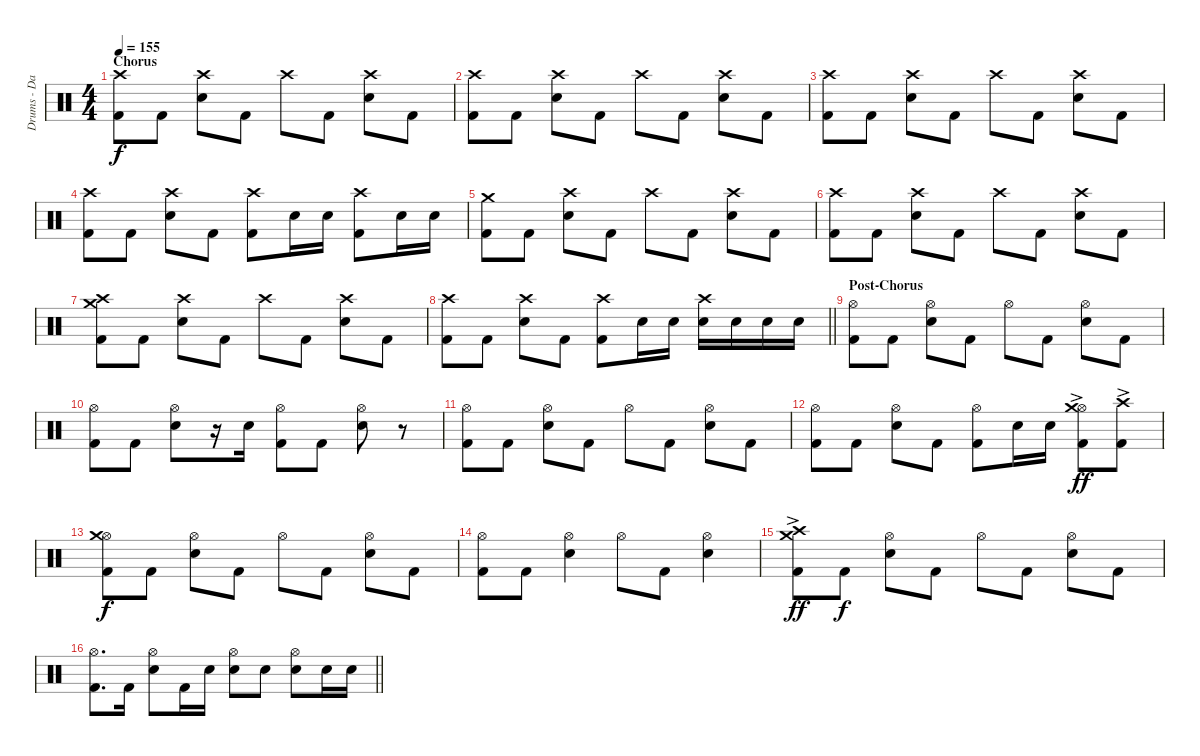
\track ("Drums - Daniel Adair" "Drums - Da") {instrument percussion bank 1}
\staff {score}
\articulation defaults
\ts (4 4)
\section ("" "Chorus")
\tempo 155
\clef neutral
\ks c
("Crash high (hit)" "Kick (hit) 2").8{dy f} "Kick (hit) 2".8 ("Crash high (hit)" "Snare (hit) 2").8 "Kick (hit) 2".8 "Crash high (hit)".8 "Kick (hit) 2".8 ("Crash high (hit)" "Snare (hit) 2").8 "Kick (hit) 2".8 |
("Crash high (hit)" "Kick (hit) 2").8 "Kick (hit) 2".8 ("Crash high (hit)" "Snare (hit) 2").8 "Kick (hit) 2".8 "Crash high (hit)".8 "Kick (hit) 2".8 ("Crash high (hit)" "Snare (hit) 2").8 "Kick (hit) 2".8 |
("Crash high (hit)" "Kick (hit) 2").8 "Kick (hit) 2".8 ("Crash high (hit)" "Snare (hit) 2").8 "Kick (hit) 2".8 "Crash high (hit)".8 "Kick (hit) 2".8 ("Crash high (hit)" "Snare (hit) 2").8 "Kick (hit) 2".8 |
("Crash high (hit)" "Kick (hit) 2").8 "Kick (hit) 2".8 ("Crash high (hit)" "Snare (hit) 2").8 "Kick (hit) 2".8 ("Crash high (hit)" "Kick (hit) 2").8 "Snare (hit) 2".16 "Snare (hit) 2".16 ("Crash high (hit)" "Kick (hit) 2").8 "Snare (hit) 2".16 "Snare (hit) 2".16 |
("Crash medium (hit)" "Kick (hit) 2").8 "Kick (hit) 2".8 ("Crash high (hit)" "Snare (hit) 2").8 "Kick (hit) 2".8 "Crash high (hit)".8 "Kick (hit) 2".8 ("Crash high (hit)" "Snare (hit) 2").8 "Kick (hit) 2".8 |
("Crash high (hit)" "Kick (hit) 2").8 "Kick (hit) 2".8 ("Crash high (hit)" "Snare (hit) 2").8 "Kick (hit) 2".8 "Crash high (hit)".8 "Kick (hit) 2".8 ("Crash high (hit)" "Snare (hit) 2").8 "Kick (hit) 2".8 |
("Crash high (hit)" "Crash medium (hit)" "Kick (hit) 2").8 "Kick (hit) 2".8 ("Crash high (hit)" "Snare (hit) 2").8 "Kick (hit) 2".8 "Crash high (hit)".8 "Kick (hit) 2".8 ("Crash high (hit)" "Snare (hit) 2").8 "Kick (hit) 2".8 |
\barLineRight lightlight
("Crash high (hit)" "Kick (hit) 2").8 "Kick (hit) 2".8 ("Crash high (hit)" "Snare (hit) 2").8 "Kick (hit) 2".8 ("Crash high (hit)" "Kick (hit) 2").8 "Snare (hit) 2".16 "Snare (hit) 2".16 ("Crash high (hit)" "Snare (hit) 2").16 "Snare (hit) 2".16 "Snare (hit) 2".16 "Snare (hit) 2".16 |
\section ("" "Post-Chorus")
("Hi-Hat (open)" "Kick (hit) 2").8 "Kick (hit) 2".8 ("Hi-Hat (open)" "Snare (hit) 2").8 "Kick (hit) 2".8 "Hi-Hat (open)".8 "Kick (hit) 2".8 ("Hi-Hat (open)" "Snare (hit) 2").8 "Kick (hit) 2".8 |
("Hi-Hat (open)" "Kick (hit) 2").8 "Kick (hit) 2".8 ("Hi-Hat (open)" "Snare (hit) 2").8 r.16 "Snare (hit) 2".16 ("Hi-Hat (open)" "Kick (hit) 2").8 "Kick (hit) 2".8 ("Hi-Hat (open)" "Snare (hit) 2").8 r.8 |
("Hi-Hat (open)" "Kick (hit) 2").8 "Kick (hit) 2".8 ("Hi-Hat (open)" "Snare (hit) 2").8 "Kick (hit) 2".8 "Hi-Hat (open)".8 "Kick (hit) 2".8 ("Hi-Hat (open)" "Snare (hit) 2").8 "Kick (hit) 2".8 |
("Hi-Hat (open)" "Kick (hit) 2").8 "Kick (hit) 2".8 ("Hi-Hat (open)" "Snare (hit) 2").8 "Kick (hit) 2".8 ("Hi-Hat (open)" "Kick (hit) 2").8 "Snare (hit) 2".16 "Snare (hit) 2".16 ("Hi-Hat (open)" "Crash medium (hit)" "Kick (hit) 2"{ac}).8{dy ff} ("Crash high (hit)" "Kick (hit) 2"{ac}).8 |
("Hi-Hat (open)" "Crash medium (hit)" "Kick (hit) 2").8{dy f} "Kick (hit) 2".8 ("Hi-Hat (open)" "Snare (hit) 2").8 "Kick (hit) 2".8 "Hi-Hat (open)".8 "Kick (hit) 2".8 ("Hi-Hat (open)" "Snare (hit) 2").8 "Kick (hit) 2".8 |
("Hi-Hat (open)" "Kick (hit) 2").8 "Kick (hit) 2".8 ("Hi-Hat (open)" "Snare (hit) 2").4 "Hi-Hat (open)".8 "Kick (hit) 2".8 ("Hi-Hat (open)" "Snare (hit) 2").4 |
("Crash high (hit)"{ac} "Crash medium (hit)" "Kick (hit) 2").8{dy ff} "Kick (hit) 2".8{dy f} ("Hi-Hat (open)" "Snare (hit) 2").8 "Kick (hit) 2".8 "Hi-Hat (open)".8 "Kick (hit) 2".8 ("Hi-Hat (open)" "Snare (hit) 2").8 "Kick (hit) 2".8 |
\barLineRight lightlight
("Hi-Hat (open)" "Kick (hit) 2").8{d} "Kick (hit) 2".16 ("Hi-Hat (open)" "Snare (hit) 2").8 "Kick (hit) 2".16 "Snare (hit) 2".16 ("Hi-Hat (open)" "Snare (hit) 2").8 "Snare (hit) 2".8 ("Hi-Hat (open)" "Snare (hit) 2").8 "Snare (hit) 2".16 "Snare (hit) 2".16
